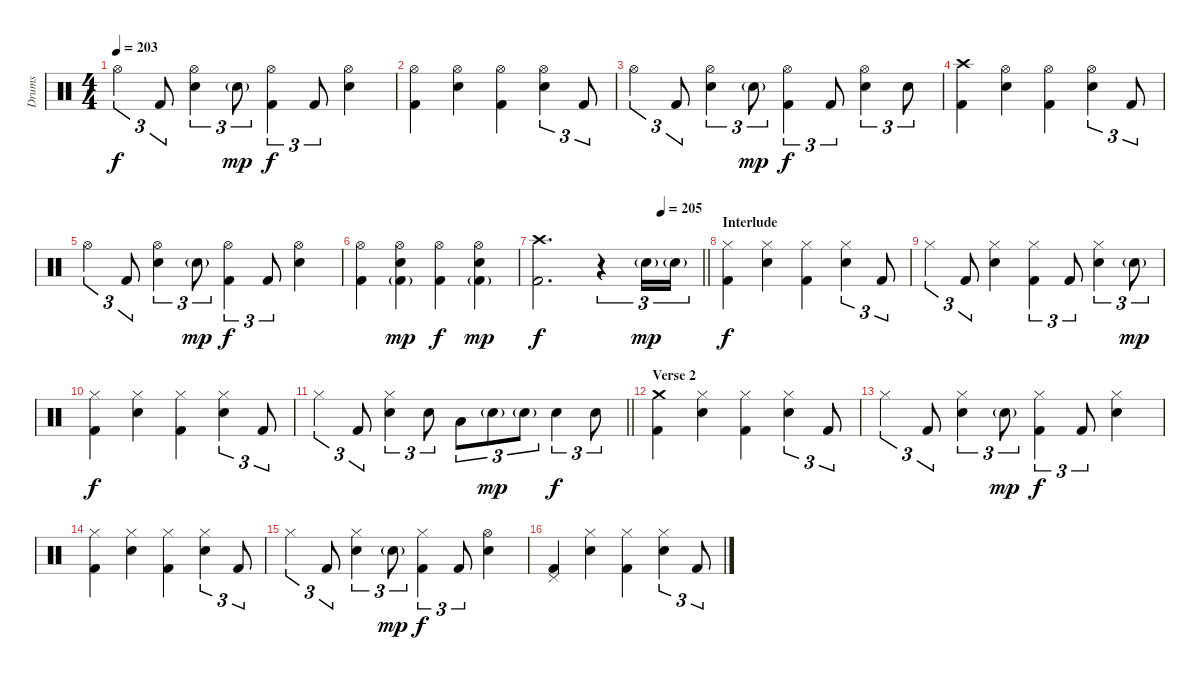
\track ("Drums" "Drums") {instrument percussion}
\staff {score}
\articulation defaults
\ts (4 4)
\tempo 203
\clef neutral
\ks c "Hi-Hat (open)".4{tu (3 2) dy f} "Kick (hit) 2".8{tu (3 2)}
("Hi-Hat (open)" "Electric Snare (hit)").4{tu (3 2)} "Electric Snare (hit)"{g}.8{tu (3 2) dy mp} ("Hi-Hat (open)" "Kick (hit) 2").4{tu (3 2) dy f} "Kick (hit) 2".8{tu (3 2)} ("Hi-Hat (open)" "Electric Snare (hit)").4 |
("Hi-Hat (open)" "Kick (hit) 2").4 ("Hi-Hat (open)" "Electric Snare (hit)").4 ("Hi-Hat (open)" "Kick (hit) 2").4 ("Hi-Hat (open)" "Electric Snare (hit)").4{tu (3 2)} "Kick (hit) 2".8{tu (3 2)} |
"Hi-Hat (open)".4{tu (3 2)} "Kick (hit) 2".8{tu (3 2)} ("Hi-Hat (open)" "Electric Snare (hit)").4{tu (3 2)} "Electric Snare (hit)"{g}.8{tu (3 2) dy mp} ("Hi-Hat (open)" "Kick (hit) 2").4{tu (3 2) dy f} "Kick (hit) 2".8{tu (3 2)} ("Hi-Hat (open)" "Electric Snare (hit)").4{tu (3 2)} "Electric Snare (hit)".8{tu (3 2)} |
("Crash high (hit)" "Kick (hit) 2").4 ("Hi-Hat (open)" "Electric Snare (hit)").4 ("Hi-Hat (open)" "Kick (hit) 2").4 ("Hi-Hat (open)" "Electric Snare (hit)").4{tu (3 2)} "Kick (hit) 2".8{tu (3 2)} |
"Hi-Hat (open)".4{tu (3 2)} "Kick (hit) 2".8{tu (3 2)} ("Hi-Hat (open)" "Electric Snare (hit)").4{tu (3 2)} "Electric Snare (hit)"{g}.8{tu (3 2) dy mp} ("Hi-Hat (open)" "Kick (hit) 2").4{tu (3 2) dy f} "Kick (hit) 2".8{tu (3 2)} ("Hi-Hat (open)" "Electric Snare (hit)").4 |
("Hi-Hat (open)" "Kick (hit) 2").4 ("Hi-Hat (open)" "Electric Snare (hit)" "Kick (hit) 2"{g}).4{dy mp} ("Hi-Hat (open)" "Kick (hit) 2").4{dy f} ("Hi-Hat (open)" "Electric Snare (hit)" "Kick (hit) 2"{g}).4{dy mp} |
\tempo (205 0.75)
\barLineRight lightlight
("Crash high (hit)" "Kick (hit) 2").2{d dy f} r.4{tu (3 2)} "Electric Snare (hit)"{g}.16{tu (3 2) dy mp} "Electric Snare (hit)"{g}.16{tu (3 2)} |
\section ("" "Interlude")
("Hi-Hat (closed)" "Kick (hit) 2").4{dy f} ("Hi-Hat (closed)" "Electric Snare (hit)").4 ("Hi-Hat (closed)" "Kick (hit) 2").4 ("Hi-Hat (closed)" "Electric Snare (hit)").4{tu (3 2)} "Kick (hit) 2".8{tu (3 2)} |
"Hi-Hat (closed)".4{tu (3 2)} "Kick (hit) 2".8{tu (3 2)} ("Hi-Hat (closed)" "Electric Snare (hit)").4 ("Hi-Hat (closed)" "Kick (hit) 2").4{tu (3 2)} "Kick (hit) 2".8{tu (3 2)} ("Hi-Hat (closed)" "Electric Snare (hit)").4{tu (3 2)} "Electric Snare (hit)"{g}.8{tu (3 2) dy mp} |
("Hi-Hat (closed)" "Kick (hit) 2").4{dy f} ("Hi-Hat (closed)" "Electric Snare (hit)").4 ("Hi-Hat (closed)" "Kick (hit) 2").4 ("Hi-Hat (closed)" "Electric Snare (hit)").4{tu (3 2)} "Kick (hit) 2".8{tu (3 2)} |
\barLineRight lightlight "Hi-Hat (closed)".4{tu (3 2)} "Kick (hit) 2".8{tu (3 2)}
("Hi-Hat (closed)" "Electric Snare (hit)").4{tu (3 2)} "Electric Snare (hit)".8{tu (3 2)} "Low Tom (hit)".8{tu (3 2)} "Electric Snare (hit)"{g}.8{tu (3 2) dy mp} "Electric Snare (hit)"{g}.8{tu (3 2)} "Electric Snare (hit)".4{tu (3 2) dy f} "Electric Snare (hit)".8{tu (3 2)} |
\section ("" "Verse 2")
("Crash medium (hit)" "Kick (hit) 2").4 ("Hi-Hat (closed)" "Electric Snare (hit)").4 ("Hi-Hat (closed)" "Kick (hit) 2").4 ("Hi-Hat (closed)" "Electric Snare (hit)").4{tu (3 2)} "Kick (hit) 2".8{tu (3 2)} |
"Hi-Hat (closed)".4{tu (3 2)} "Kick (hit) 2".8{tu (3 2)} ("Hi-Hat (closed)" "Electric Snare (hit)").4{tu (3 2)} "Electric Snare (hit)"{g}.8{tu (3 2) dy mp} ("Hi-Hat (closed)" "Kick (hit) 2").4{tu (3 2) dy f} "Kick (hit) 2".8{tu (3 2)} ("Hi-Hat (closed)" "Electric Snare (hit)").4 |
("Hi-Hat (closed)" "Kick (hit) 2").4 ("Hi-Hat (closed)" "Electric Snare (hit)").4 ("Hi-Hat (closed)" "Kick (hit) 2").4 ("Hi-Hat (closed)" "Electric Snare (hit)").4{tu (3 2)} "Kick (hit) 2".8{tu (3 2)} |
"Hi-Hat (closed)".4{tu (3 2)} "Kick (hit) 2".8{tu (3 2)} ("Hi-Hat (closed)" "Electric Snare (hit)").4{tu (3 2)} "Electric Snare (hit)"{g}.8{tu (3 2) dy mp} ("Hi-Hat (closed)" "Kick (hit) 2").4{tu (3 2) dy f} "Kick (hit) 2".8{tu (3 2)} ("Hi-Hat (open)" "Electric Snare (hit)").4 |
("Pedal Hi-Hat (hit)" "Kick (hit) 2").4 ("Hi-Hat (closed)" "Electric Snare (hit)").4 ("Hi-Hat (closed)" "Kick (hit) 2").4 ("Hi-Hat (closed)" "Electric Snare (hit)").4{tu (3 2)} "Kick (hit) 2".8{tu (3 2)}
